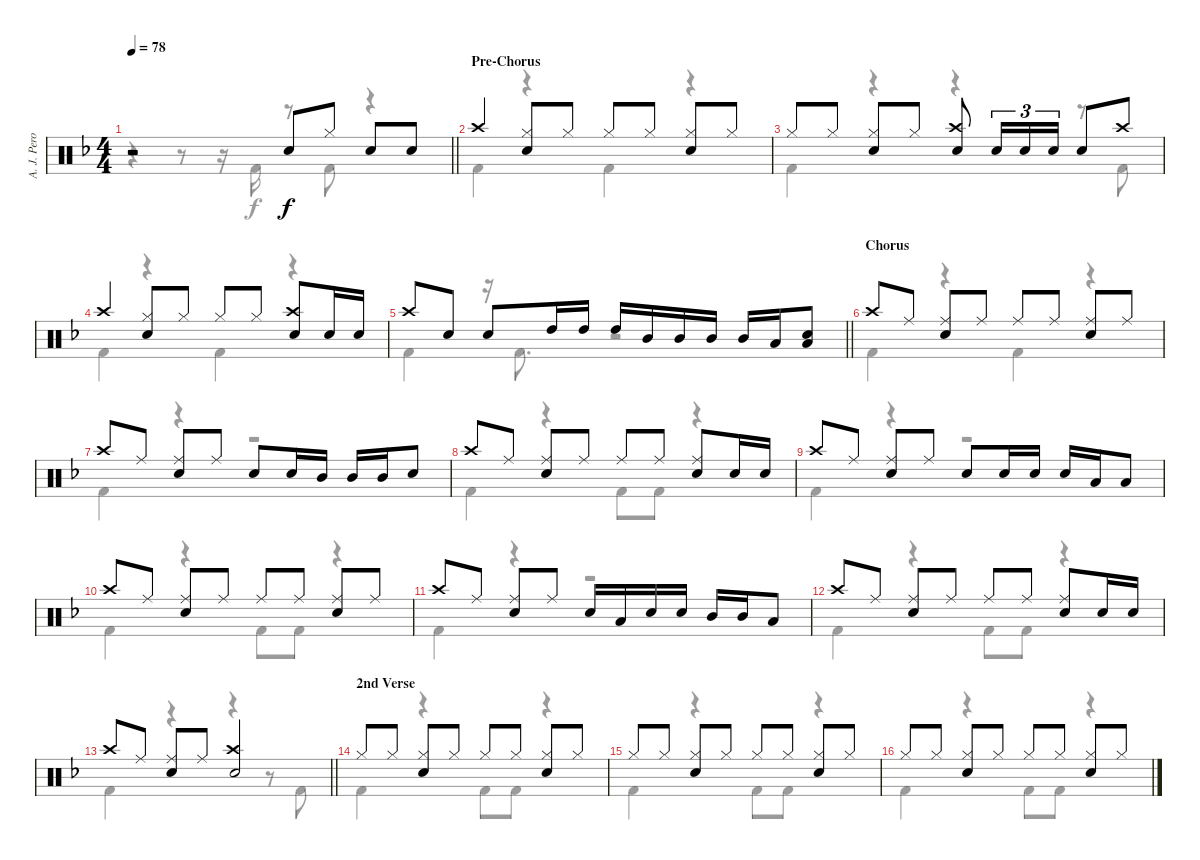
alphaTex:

\track ("A. J. Pero" "A. J. Pero") {instrument percussion}
\staff {score}
\articulation defaults
\voice
\ts (4 4)
\tempo 78
\clef neutral
\barLineRight lightlight
\ks dminor
r.2{dy f} "Snare (hit) 2".8 "Hi-Hat (closed)".8 "Snare (hit) 2".8 "Snare (hit) 2".8 |
\section ("" "Pre-Chorus")
"Crash high (hit)".4 ("Hi-Hat (closed)" "Snare (hit) 2").8 "Hi-Hat (closed)".8 "Hi-Hat (closed)".8 "Hi-Hat (closed)".8 ("Hi-Hat (closed)" "Snare (hit) 2").8 "Hi-Hat (closed)".8 |
"Hi-Hat (closed)".8 "Hi-Hat (closed)".8 ("Hi-Hat (closed)" "Snare (hit) 2").8 "Hi-Hat (closed)".8 ("Crash high (hit)" "Snare (hit) 2").8 "Snare (hit) 2".16{tu (3 2)} "Snare (hit) 2".16{tu (3 2)} "Snare (hit) 2".16{tu (3 2)} "Snare (hit) 2".8 "Crash high (hit)".8 |
"Crash high (hit)".4 ("Hi-Hat (closed)" "Snare (hit) 2").8 "Hi-Hat (closed)".8 "Hi-Hat (closed)".8 "Hi-Hat (closed)".8 ("Crash high (hit)" "Snare (hit) 2").8 "Snare (hit) 2".16 "Snare (hit) 2".16 |
\barLineRight lightlight "Crash high (hit)".8 "Snare (hit) 2".8 "Snare (hit) 2".8 "High Tom (hit)".16 "High Tom (hit)".16 "High Tom (hit)".16 "Mid Tom (hit)".16 "Mid Tom (hit)".16 "Mid Tom (hit)".16 "Mid Tom (hit)".16 "Low Tom (hit)".16
("Snare (hit) 2" "Low Tom (hit)").8 |
\section ("" "Chorus")
"Crash high (hit)".8 "Ride (middle)".8 ("Ride (middle)" "Snare (hit) 2").8 "Ride (middle)".8 "Ride (middle)".8 "Ride (middle)".8 ("Ride (middle)" "Snare (hit) 2").8 "Ride (middle)".8 |
"Crash high (hit)".8 "Ride (middle)".8 ("Ride (middle)" "Snare (hit) 2").8 "Ride (middle)".8 "Snare (hit) 2".8 "Snare (hit) 2".16 "Mid Tom (hit)".16 "Mid Tom (hit)".16 "Mid Tom (hit)".16 "Snare (hit) 2".8 |
"Crash high (hit)".8 "Ride (middle)".8 ("Ride (middle)" "Snare (hit) 2").8 "Ride (middle)".8 "Ride (middle)".8 "Ride (middle)".8 ("Ride (middle)" "Snare (hit) 2").8 "Snare (hit) 2".16 "Snare (hit) 2".16 |
"Crash high (hit)".8 "Ride (middle)".8 ("Ride (middle)" "Snare (hit) 2").8 "Ride (middle)".8 "Snare (hit) 2".8 "Snare (hit) 2".16 "Snare (hit) 2".16 "Snare (hit) 2".16 "Low Tom (hit)".16 "Low Tom (hit)".8 |
"Crash high (hit)".8 "Ride (middle)".8 ("Ride (middle)" "Snare (hit) 2").8 "Ride (middle)".8 "Ride (middle)".8 "Ride (middle)".8 ("Ride (middle)" "Snare (hit) 2").8 "Ride (middle)".8 |
"Crash high (hit)".8 "Ride (middle)".8 ("Ride (middle)" "Snare (hit) 2").8 "Ride (middle)".8 "Snare (hit) 2".16 "Low Tom (hit)".16 "Snare (hit) 2".16 "Snare (hit) 2".16 "Mid Tom (hit)".16 "Mid Tom (hit)".16 "Low Tom (hit)".8 |
"Crash high (hit)".8 "Ride (middle)".8 ("Ride (middle)" "Snare (hit) 2").8 "Ride (middle)".8 "Ride (middle)".8 "Ride (middle)".8 ("Ride (middle)" "Snare (hit) 2").8 "Snare (hit) 2".16 "Snare (hit) 2".16 |
\barLineRight lightlight "Crash high (hit)".8 "Ride (middle)".8
("Ride (middle)" "Snare (hit) 2").8 "Ride (middle)".8 ("Crash high (hit)" "Snare (hit) 2").2 |
\section ("" "2nd Verse")
"Hi-Hat (closed)".8 "Hi-Hat (closed)".8 ("Hi-Hat (closed)" "Snare (hit) 2").8 "Hi-Hat (closed)".8 "Hi-Hat (closed)".8 "Hi-Hat (closed)".8 ("Hi-Hat (closed)" "Snare (hit) 2").8 "Hi-Hat (closed)".8 |
"Hi-Hat (closed)".8 "Hi-Hat (closed)".8 ("Hi-Hat (closed)" "Snare (hit) 2").8 "Hi-Hat (closed)".8 "Hi-Hat (closed)".8 "Hi-Hat (closed)".8 ("Hi-Hat (closed)" "Snare (hit) 2").8 "Hi-Hat (closed)".8 |
"Hi-Hat (closed)".8 "Hi-Hat (closed)".8 ("Hi-Hat (closed)" "Snare (hit) 2").8 "Hi-Hat (closed)".8 "Hi-Hat (closed)".8 "Hi-Hat (closed)".8 ("Hi-Hat (closed)" "Snare (hit) 2").8 "Hi-Hat (closed)".8
\voice
\clef neutral
\ottava regular
\simile none
\barLineRight lightlight
\ks dminor
r.4{dy f} r.8 r.16 "Kick (hit) 2".16 r.8 "Kick (hit) 2".8 r.4 |
"Kick (hit) 2".4 r.4 "Kick (hit) 2".4 r.4 |
"Kick (hit) 2".4 r.4 r.4 r.8 "Kick (hit) 2".8 |
"Kick (hit) 2".4 r.4 "Kick (hit) 2".4 r.4 |
\barLineRight lightlight "Kick (hit) 2".4
r.16 "Kick (hit) 2".8{d} r.2 |
"Kick (hit) 2".4 r.4 "Kick (hit) 2".4 r.4 |
"Kick (hit) 2".4 r.4 r.2 |
"Kick (hit) 2".4 r.4 "Kick (hit) 2".8 "Kick (hit) 2".8 r.4 |
"Kick (hit) 2".4 r.4 r.2 |
"Kick (hit) 2".4 r.4 "Kick (hit) 2".8 "Kick (hit) 2".8 r.4 |
"Kick (hit) 2".4 r.4 r.2 |
"Kick (hit) 2".4 r.4 "Kick (hit) 2".8 "Kick (hit) 2".8 r.4 |
\barLineRight lightlight "Kick (hit) 2".4
r.4 r.4 r.8 "Kick (hit) 2".8 |
"Kick (hit) 2".4 r.4 "Kick (hit) 2".8 "Kick (hit) 2".8 r.4 |
"Kick (hit) 2".4 r.4 "Kick (hit) 2".8 "Kick (hit) 2".8 r.4 |
"Kick (hit) 2".4 r.4 "Kick (hit) 2".8 "Kick (hit) 2".8 r.4
